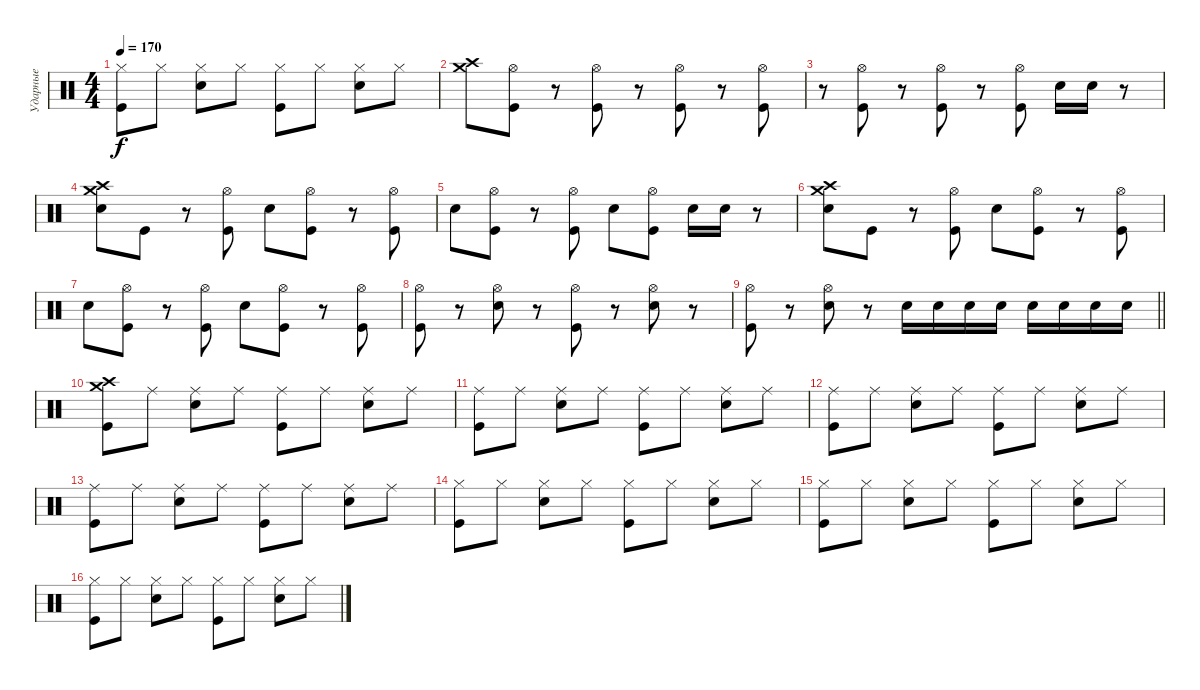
\track ("Ударные" "Ударные") {instrument percussion}
\staff {score}
\articulation defaults
\ts (4 4)
\tempo 170
\clef neutral
\ks c
("Kick (hit)" "Hi-Hat (closed)").8{dy f} "Hi-Hat (closed)".8 ("Electric Snare (hit)" "Hi-Hat (closed)").8 "Hi-Hat (closed)".8 ("Kick (hit)" "Hi-Hat (closed)").8 "Hi-Hat (closed)".8 ("Electric Snare (hit)" "Hi-Hat (closed)").8 "Hi-Hat (closed)".8 |
("Crash medium (hit)" "Crash high (hit)").8 ("Hi-Hat (open)" "Kick (hit)").8 r.8 ("Hi-Hat (open)" "Kick (hit)").8 r.8 ("Hi-Hat (open)" "Kick (hit)").8 r.8 ("Hi-Hat (open)" "Kick (hit)").8 |
r.8 ("Hi-Hat (open)" "Kick (hit)").8 r.8 ("Hi-Hat (open)" "Kick (hit)").8 r.8 ("Hi-Hat (open)" "Kick (hit)").8 "Electric Snare (hit)".16 "Electric Snare (hit)".16 r.8 |
("Crash high (hit)" "Crash medium (hit)" "Electric Snare (hit)").8 "Kick (hit)".8 r.8 ("Hi-Hat (open)" "Kick (hit)").8 "Electric Snare (hit)".8 ("Hi-Hat (open)" "Kick (hit)").8 r.8 ("Hi-Hat (open)" "Kick (hit)").8 |
"Electric Snare (hit)".8 ("Hi-Hat (open)" "Kick (hit)").8 r.8 ("Hi-Hat (open)" "Kick (hit)").8 "Electric Snare (hit)".8 ("Hi-Hat (open)" "Kick (hit)").8 "Electric Snare (hit)".16 "Electric Snare (hit)".16 r.8 |
("Crash high (hit)" "Crash medium (hit)" "Electric Snare (hit)").8 "Kick (hit)".8 r.8 ("Hi-Hat (open)" "Kick (hit)").8 "Electric Snare (hit)".8 ("Hi-Hat (open)" "Kick (hit)").8 r.8 ("Hi-Hat (open)" "Kick (hit)").8 |
"Electric Snare (hit)".8 ("Hi-Hat (open)" "Kick (hit)").8 r.8 ("Hi-Hat (open)" "Kick (hit)").8 "Electric Snare (hit)".8 ("Hi-Hat (open)" "Kick (hit)").8 r.8 ("Hi-Hat (open)" "Kick (hit)").8 |
("Hi-Hat (open)" "Kick (hit)").8 r.8 ("Hi-Hat (open)" "Electric Snare (hit)").8 r.8 ("Hi-Hat (open)" "Kick (hit)").8 r.8 ("Hi-Hat (open)" "Electric Snare (hit)").8 r.8 |
\barLineRight lightlight
("Hi-Hat (open)" "Kick (hit)").8 r.8 ("Hi-Hat (open)" "Electric Snare (hit)").8 r.8 "Electric Snare (hit)".16 "Electric Snare (hit)".16 "Electric Snare (hit)".16 "Electric Snare (hit)".16 "Electric Snare (hit)".16 "Electric Snare (hit)".16 "Electric Snare (hit)".16 "Electric Snare (hit)".16 |
("Crash medium (hit)" "Kick (hit)" "Crash high (hit)").8 "Ride (middle)".8 ("Ride (middle)" "Electric Snare (hit)").8 "Ride (middle)".8 ("Ride (middle)" "Kick (hit)").8 "Ride (middle)".8 ("Ride (middle)" "Electric Snare (hit)").8 "Ride (middle)".8 |
("Ride (middle)" "Kick (hit)").8 "Ride (middle)".8 ("Ride (middle)" "Electric Snare (hit)").8 "Ride (middle)".8 ("Ride (middle)" "Kick (hit)").8 "Ride (middle)".8 ("Ride (middle)" "Electric Snare (hit)").8 "Ride (middle)".8 |
("Ride (middle)" "Kick (hit)").8 "Ride (middle)".8 ("Ride (middle)" "Electric Snare (hit)").8 "Ride (middle)".8 ("Ride (middle)" "Kick (hit)").8 "Ride (middle)".8 ("Ride (middle)" "Electric Snare (hit)").8 "Ride (middle)".8 |
("Ride (middle)" "Kick (hit)").8 "Ride (middle)".8 ("Ride (middle)" "Electric Snare (hit)").8 "Ride (middle)".8 ("Ride (middle)" "Kick (hit)").8 "Ride (middle)".8 ("Ride (middle)" "Electric Snare (hit)").8 "Ride (middle)".8 |
("Hi-Hat (closed)" "Kick (hit)").8 "Hi-Hat (closed)".8 ("Hi-Hat (closed)" "Electric Snare (hit)").8 "Hi-Hat (closed)".8 ("Hi-Hat (closed)" "Kick (hit)").8 "Hi-Hat (closed)".8 ("Hi-Hat (closed)" "Electric Snare (hit)").8 "Hi-Hat (closed)".8 |
("Hi-Hat (closed)" "Kick (hit)").8 "Hi-Hat (closed)".8 ("Hi-Hat (closed)" "Electric Snare (hit)").8 "Hi-Hat (closed)".8 ("Hi-Hat (closed)" "Kick (hit)").8 "Hi-Hat (closed)".8 ("Hi-Hat (closed)" "Electric Snare (hit)").8 "Hi-Hat (closed)".8 |
("Hi-Hat (closed)" "Kick (hit)").8 "Hi-Hat (closed)".8 ("Hi-Hat (closed)" "Electric Snare (hit)").8 "Hi-Hat (closed)".8 ("Hi-Hat (closed)" "Kick (hit)").8 "Hi-Hat (closed)".8 ("Hi-Hat (closed)" "Electric Snare (hit)").8 "Hi-Hat (closed)".8
